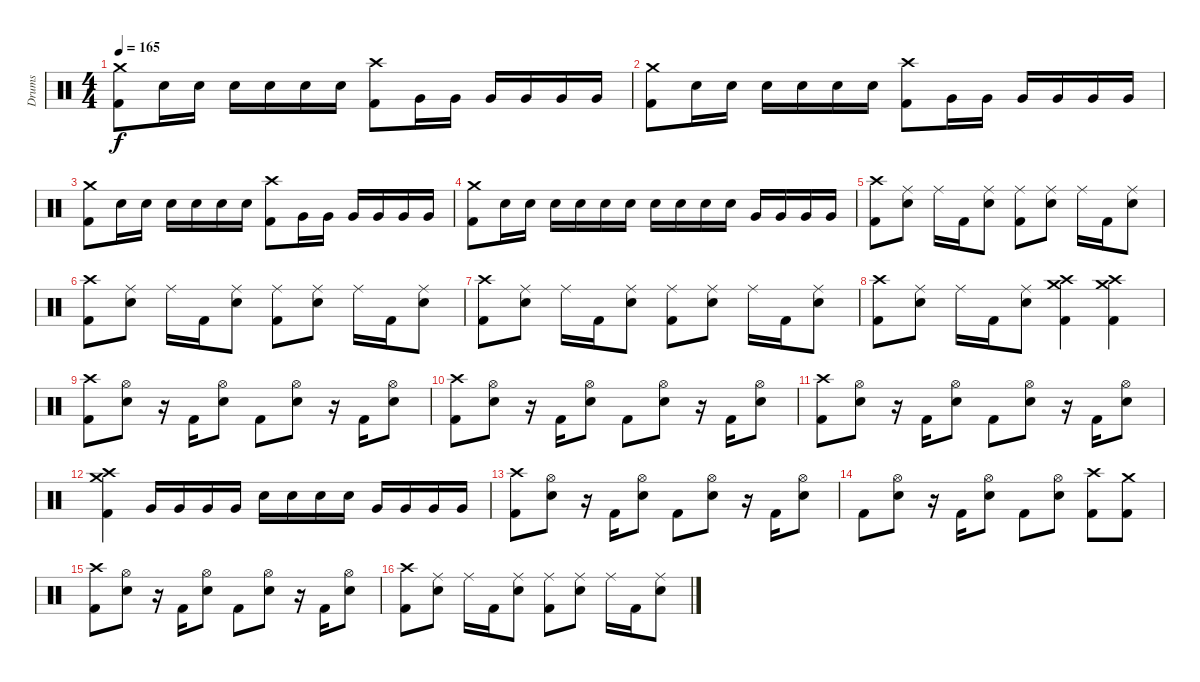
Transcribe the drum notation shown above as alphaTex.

\track ("Drums" "Drums") {instrument percussion}
\staff {score}
\articulation defaults
\ts (4 4)
\tempo 165
\clef neutral
\ks c
("Crash medium (hit)" "Kick (hit) 2").8{dy f} "Electric Snare (hit)".16 "Electric Snare (hit)".16 "Electric Snare (hit)".16 "Electric Snare (hit)".16 "Electric Snare (hit)".16 "Electric Snare (hit)".16 ("Crash high (hit)" "Kick (hit) 2").8 "Very Low Tom (hit)".16 "Very Low Tom (hit)".16 "Very Low Tom (hit)".16 "Very Low Tom (hit)".16 "Very Low Tom (hit)".16 "Very Low Tom (hit)".16 |
("Crash medium (hit)" "Kick (hit) 2").8 "Electric Snare (hit)".16 "Electric Snare (hit)".16 "Electric Snare (hit)".16 "Electric Snare (hit)".16 "Electric Snare (hit)".16 "Electric Snare (hit)".16 ("Crash high (hit)" "Kick (hit) 2").8 "Very Low Tom (hit)".16 "Very Low Tom (hit)".16 "Very Low Tom (hit)".16 "Very Low Tom (hit)".16 "Very Low Tom (hit)".16 "Very Low Tom (hit)".16 |
("Crash medium (hit)" "Kick (hit) 2").8 "Electric Snare (hit)".16 "Electric Snare (hit)".16 "Electric Snare (hit)".16 "Electric Snare (hit)".16 "Electric Snare (hit)".16 "Electric Snare (hit)".16 ("Crash high (hit)" "Kick (hit) 2").8 "Very Low Tom (hit)".16 "Very Low Tom (hit)".16 "Very Low Tom (hit)".16 "Very Low Tom (hit)".16 "Very Low Tom (hit)".16 "Very Low Tom (hit)".16 |
("Crash medium (hit)" "Kick (hit) 2").8 "Electric Snare (hit)".16 "Electric Snare (hit)".16 "Electric Snare (hit)".16 "Electric Snare (hit)".16 "Electric Snare (hit)".16 "Electric Snare (hit)".16 "Electric Snare (hit)".16 "Electric Snare (hit)".16 "Electric Snare (hit)".16 "Electric Snare (hit)".16 "Very Low Tom (hit)".16 "Very Low Tom (hit)".16 "Very Low Tom (hit)".16 "Very Low Tom (hit)".16 |
("Crash high (hit)" "Kick (hit) 2").8 ("Ride (middle)" "Electric Snare (hit)").8 "Ride (middle)".16 "Kick (hit) 2".16 ("Ride (middle)" "Electric Snare (hit)").8 ("Ride (middle)" "Kick (hit) 2").8 ("Ride (middle)" "Electric Snare (hit)").8 "Ride (middle)".16 "Kick (hit) 2".16 ("Ride (middle)" "Electric Snare (hit)").8 |
("Crash high (hit)" "Kick (hit) 2").8 ("Ride (middle)" "Electric Snare (hit)").8 "Ride (middle)".16 "Kick (hit) 2".16 ("Ride (middle)" "Electric Snare (hit)").8 ("Ride (middle)" "Kick (hit) 2").8 ("Ride (middle)" "Electric Snare (hit)").8 "Ride (middle)".16 "Kick (hit) 2".16 ("Ride (middle)" "Electric Snare (hit)").8 |
("Crash high (hit)" "Kick (hit) 2").8 ("Ride (middle)" "Electric Snare (hit)").8 "Ride (middle)".16 "Kick (hit) 2".16 ("Ride (middle)" "Electric Snare (hit)").8 ("Ride (middle)" "Kick (hit) 2").8 ("Ride (middle)" "Electric Snare (hit)").8 "Ride (middle)".16 "Kick (hit) 2".16 ("Ride (middle)" "Electric Snare (hit)").8 |
("Crash high (hit)" "Kick (hit) 2").8 ("Ride (middle)" "Electric Snare (hit)").8 "Ride (middle)".16 "Kick (hit) 2".16 ("Ride (middle)" "Electric Snare (hit)").8 ("Crash high (hit)" "Crash medium (hit)" "Kick (hit) 2").4 ("Crash high (hit)" "Crash medium (hit)" "Kick (hit) 2").4 |
("Crash high (hit)" "Kick (hit) 2").8 ("Hi-Hat (open)" "Electric Snare (hit)").8 r.16 "Kick (hit) 2".16 ("Hi-Hat (open)" "Electric Snare (hit)").8 "Kick (hit) 2".8 ("Hi-Hat (open)" "Electric Snare (hit)").8 r.16 "Kick (hit) 2".16 ("Hi-Hat (open)" "Electric Snare (hit)").8 |
("Crash high (hit)" "Kick (hit) 2").8 ("Hi-Hat (open)" "Electric Snare (hit)").8 r.16 "Kick (hit) 2".16 ("Hi-Hat (open)" "Electric Snare (hit)").8 "Kick (hit) 2".8 ("Hi-Hat (open)" "Electric Snare (hit)").8 r.16 "Kick (hit) 2".16 ("Hi-Hat (open)" "Electric Snare (hit)").8 |
("Crash high (hit)" "Kick (hit) 2").8 ("Hi-Hat (open)" "Electric Snare (hit)").8 r.16 "Kick (hit) 2".16 ("Hi-Hat (open)" "Electric Snare (hit)").8 "Kick (hit) 2".8 ("Hi-Hat (open)" "Electric Snare (hit)").8 r.16 "Kick (hit) 2".16 ("Hi-Hat (open)" "Electric Snare (hit)").8 |
("Crash high (hit)" "Crash medium (hit)" "Kick (hit) 2").4 "Very Low Tom (hit)".16 "Very Low Tom (hit)".16 "Very Low Tom (hit)".16 "Very Low Tom (hit)".16 "Electric Snare (hit)".16 "Electric Snare (hit)".16 "Electric Snare (hit)".16 "Electric Snare (hit)".16 "Very Low Tom (hit)".16 "Very Low Tom (hit)".16 "Very Low Tom (hit)".16 "Very Low Tom (hit)".16 |
("Crash high (hit)" "Kick (hit) 2").8 ("Hi-Hat (open)" "Electric Snare (hit)").8 r.16 "Kick (hit) 2".16 ("Hi-Hat (open)" "Electric Snare (hit)").8 "Kick (hit) 2".8 ("Hi-Hat (open)" "Electric Snare (hit)").8 r.16 "Kick (hit) 2".16 ("Hi-Hat (open)" "Electric Snare (hit)").8 |
"Kick (hit) 2".8 ("Hi-Hat (open)" "Electric Snare (hit)").8 r.16 "Kick (hit) 2".16 ("Hi-Hat (open)" "Electric Snare (hit)").8 "Kick (hit) 2".8 ("Hi-Hat (open)" "Electric Snare (hit)").8 ("Crash high (hit)" "Kick (hit) 2").8 ("Crash medium (hit)" "Kick (hit) 2").8 |
("Crash high (hit)" "Kick (hit) 2").8 ("Hi-Hat (open)" "Electric Snare (hit)").8 r.16 "Kick (hit) 2".16 ("Hi-Hat (open)" "Electric Snare (hit)").8 "Kick (hit) 2".8 ("Hi-Hat (open)" "Electric Snare (hit)").8 r.16 "Kick (hit) 2".16 ("Hi-Hat (open)" "Electric Snare (hit)").8 |
("Crash high (hit)" "Kick (hit) 2").8 ("Ride (middle)" "Electric Snare (hit)").8 "Ride (middle)".16 "Kick (hit) 2".16 ("Ride (middle)" "Electric Snare (hit)").8 ("Ride (middle)" "Kick (hit) 2").8 ("Ride (middle)" "Electric Snare (hit)").8 "Ride (middle)".16 "Kick (hit) 2".16 ("Ride (middle)" "Electric Snare (hit)").8
